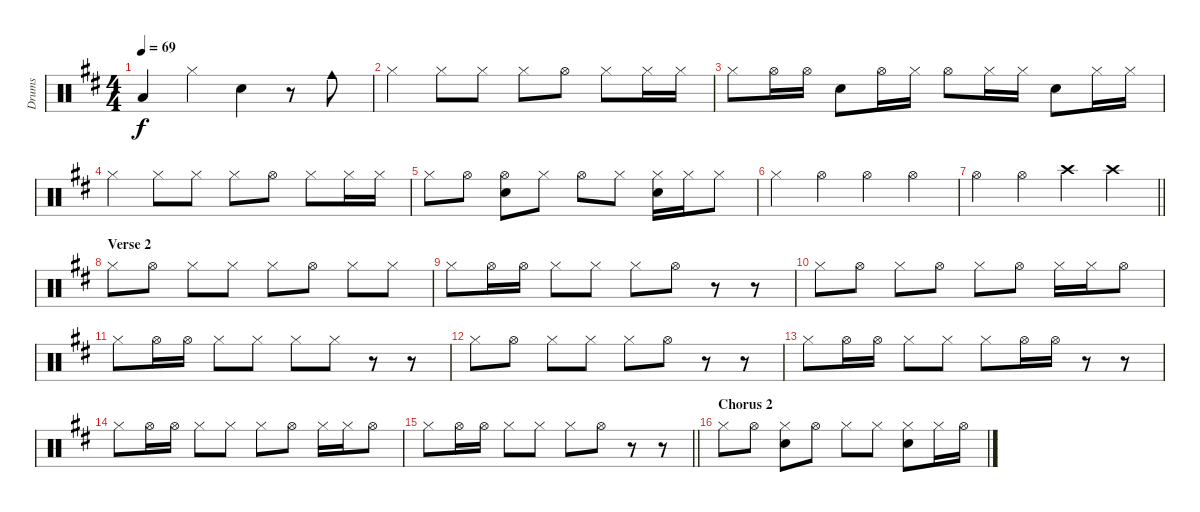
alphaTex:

\track ("Drums" "Drums") {instrument percussion}
\staff {score}
\articulation defaults
\ts (4 4)
\tempo 69
\clef neutral
\ks d "Low Tom (hit)".4{dy f} "Hi-Hat (closed)".4 "Snare (hit) 2".4
r.8 "Cowbell medium (hit)".8 |
"Hi-Hat (closed)".4 "Hi-Hat (closed)".8 "Hi-Hat (closed)".8 "Hi-Hat (closed)".8 "Hi-Hat (open)".8 "Hi-Hat (closed)".8 "Hi-Hat (closed)".16 "Hi-Hat (closed)".16 |
"Hi-Hat (closed)".8 "Hi-Hat (open)".16 "Hi-Hat (open)".16 "Snare (hit) 2".8 "Hi-Hat (open)".16 "Hi-Hat (closed)".16 "Hi-Hat (open)".8 "Hi-Hat (closed)".16 "Hi-Hat (closed)".16 "Snare (hit) 2".8 "Hi-Hat (closed)".16 "Hi-Hat (closed)".16 |
"Hi-Hat (closed)".4 "Hi-Hat (closed)".8 "Hi-Hat (closed)".8 "Hi-Hat (closed)".8 "Hi-Hat (open)".8 "Hi-Hat (closed)".8 "Hi-Hat (closed)".16 "Hi-Hat (closed)".16 |
"Hi-Hat (closed)".8 "Hi-Hat (open)".8 ("Hi-Hat (open)" "Snare (hit) 2").8 "Hi-Hat (closed)".8 "Hi-Hat (open)".8 "Hi-Hat (closed)".8 ("Hi-Hat (closed)" "Snare (hit) 2").16 "Hi-Hat (closed)".16 "Hi-Hat (closed)".8 |
"Hi-Hat (closed)".4 "Hi-Hat (open)".4 "Hi-Hat (open)".4 "Hi-Hat (open)".4 |
\barLineRight lightlight "Hi-Hat (open)".4 "Hi-Hat (open)".4 "Crash high (hit)".4 "Crash high (hit)".4
|
\section ("" "Verse 2")
"Hi-Hat (closed)".8 "Hi-Hat (open)".8 "Hi-Hat (closed)".8 "Hi-Hat (closed)".8 "Hi-Hat (closed)".8 "Hi-Hat (open)".8 "Hi-Hat (closed)".8 "Hi-Hat (closed)".8 |
"Hi-Hat (closed)".8 "Hi-Hat (open)".16 "Hi-Hat (open)".16 "Hi-Hat (closed)".8 "Hi-Hat (closed)".8 "Hi-Hat (closed)".8 "Hi-Hat (open)".8 r.8 r.8 |
"Hi-Hat (closed)".8 "Hi-Hat (open)".8 "Hi-Hat (closed)".8 "Hi-Hat (open)".8 "Hi-Hat (closed)".8 "Hi-Hat (open)".8 "Hi-Hat (closed)".16 "Hi-Hat (closed)".16 "Hi-Hat (open)".8 |
"Hi-Hat (closed)".8 "Hi-Hat (open)".16 "Hi-Hat (open)".16 "Hi-Hat (closed)".8 "Hi-Hat (closed)".8 "Hi-Hat (closed)".8 "Hi-Hat (closed)".8 r.8 r.8 |
"Hi-Hat (closed)".8 "Hi-Hat (open)".8 "Hi-Hat (closed)".8 "Hi-Hat (closed)".8 "Hi-Hat (closed)".8 "Hi-Hat (open)".8 r.8 r.8 |
"Hi-Hat (closed)".8 "Hi-Hat (open)".16 "Hi-Hat (open)".16 "Hi-Hat (closed)".8 "Hi-Hat (closed)".8 "Hi-Hat (closed)".8 "Hi-Hat (open)".16 "Hi-Hat (open)".16 r.8 r.8 |
"Hi-Hat (closed)".8 "Hi-Hat (open)".16 "Hi-Hat (open)".16 "Hi-Hat (closed)".8 "Hi-Hat (closed)".8 "Hi-Hat (closed)".8 "Hi-Hat (open)".8 "Hi-Hat (closed)".16 "Hi-Hat (closed)".16 "Hi-Hat (open)".8 |
\barLineRight lightlight "Hi-Hat (closed)".8 "Hi-Hat (open)".16 "Hi-Hat (open)".16 "Hi-Hat (closed)".8 "Hi-Hat (closed)".8 "Hi-Hat (closed)".8 "Hi-Hat (open)".8
r.8 r.8 |
\section ("" "Chorus 2")
"Hi-Hat (closed)".8 "Hi-Hat (open)".8 ("Hi-Hat (closed)" "Snare (hit) 2").8 "Hi-Hat (open)".8 "Hi-Hat (closed)".8 "Hi-Hat (closed)".8 ("Hi-Hat (closed)" "Snare (hit) 2").8 "Hi-Hat (closed)".16 "Hi-Hat (open)".16
